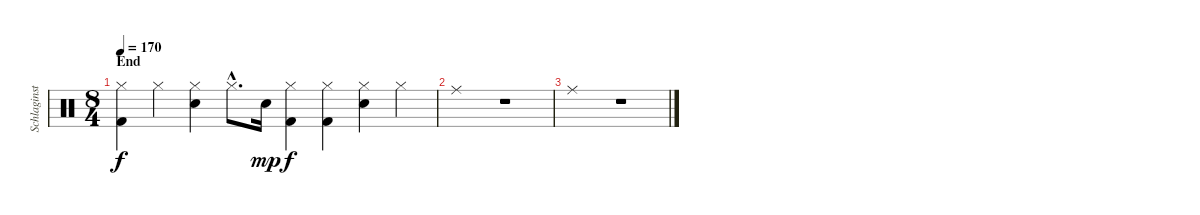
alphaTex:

\track ("Schlaginstrumente - Auswahl" "Schlaginst") {instrument percussion}
\staff {score}
\articulation defaults
\ts (8 4)
\section ("" "End")
\tempo 170
\clef neutral
\ks c
("Hi-Hat (closed)" "Kick (hit) 2").4{dy f} "Hi-Hat (closed)".4 ("Hi-Hat (closed)" "Electric Snare (hit)").4 "Hi-Hat (closed)"{hac}.8{d} "Electric Snare (hit)".16{dy mp} ("Hi-Hat (closed)" "Kick (hit) 2").4{dy f} ("Hi-Hat (closed)" "Kick (hit) 2").4 ("Hi-Hat (closed)" "Electric Snare (hit)").4 "Hi-Hat (closed)".4 |
"Ride (middle)".1 r.1 |
"Ride (middle)".1 r.1
